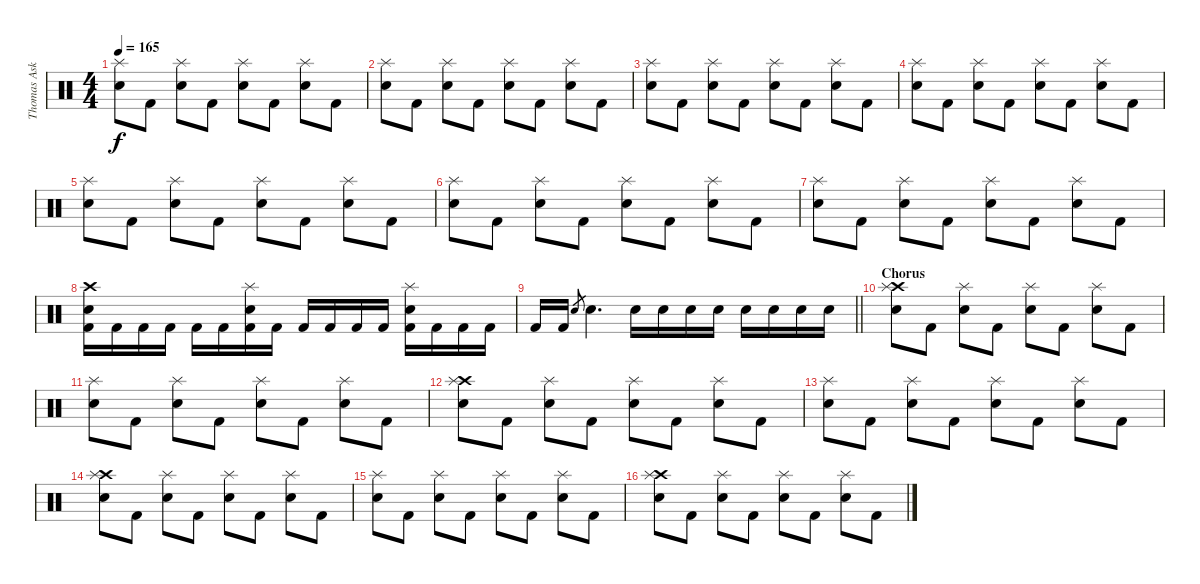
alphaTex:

\track ("Thomas Asklund" "Thomas Ask") {instrument percussion}
\staff {score}
\articulation defaults
\ts (4 4)
\tempo 165
\clef neutral
\ks c
("Splash (hit)" "Snare (hit) 2").8{dy f} "Kick (hit) 2".8 ("Splash (hit)" "Snare (hit) 2").8 "Kick (hit) 2".8 ("Splash (hit)" "Snare (hit) 2").8 "Kick (hit) 2".8 ("Splash (hit)" "Snare (hit) 2").8 "Kick (hit) 2".8 |
("Splash (hit)" "Snare (hit) 2").8 "Kick (hit) 2".8 ("Splash (hit)" "Snare (hit) 2").8 "Kick (hit) 2".8 ("Splash (hit)" "Snare (hit) 2").8 "Kick (hit) 2".8 ("Splash (hit)" "Snare (hit) 2").8 "Kick (hit) 2".8 |
("Splash (hit)" "Snare (hit) 2").8 "Kick (hit) 2".8 ("Splash (hit)" "Snare (hit) 2").8 "Kick (hit) 2".8 ("Splash (hit)" "Snare (hit) 2").8 "Kick (hit) 2".8 ("Splash (hit)" "Snare (hit) 2").8 "Kick (hit) 2".8 |
("Splash (hit)" "Snare (hit) 2").8 "Kick (hit) 2".8 ("Splash (hit)" "Snare (hit) 2").8 "Kick (hit) 2".8 ("Splash (hit)" "Snare (hit) 2").8 "Kick (hit) 2".8 ("Splash (hit)" "Snare (hit) 2").8 "Kick (hit) 2".8 |
("Splash (hit)" "Snare (hit) 2").8 "Kick (hit) 2".8 ("Splash (hit)" "Snare (hit) 2").8 "Kick (hit) 2".8 ("Splash (hit)" "Snare (hit) 2").8 "Kick (hit) 2".8 ("Splash (hit)" "Snare (hit) 2").8 "Kick (hit) 2".8 |
("Splash (hit)" "Snare (hit) 2").8 "Kick (hit) 2".8 ("Splash (hit)" "Snare (hit) 2").8 "Kick (hit) 2".8 ("Splash (hit)" "Snare (hit) 2").8 "Kick (hit) 2".8 ("Splash (hit)" "Snare (hit) 2").8 "Kick (hit) 2".8 |
("Splash (hit)" "Snare (hit) 2").8 "Kick (hit) 2".8 ("Splash (hit)" "Snare (hit) 2").8 "Kick (hit) 2".8 ("Splash (hit)" "Snare (hit) 2").8 "Kick (hit) 2".8 ("Splash (hit)" "Snare (hit) 2").8 "Kick (hit) 2".8 |
("Snare (hit) 2" "Crash high (hit)" "Kick (hit) 2").16 "Kick (hit) 2".16 "Kick (hit) 2".16 "Kick (hit) 2".16 "Kick (hit) 2".16 "Kick (hit) 2".16 ("Splash (hit)" "Snare (hit) 2" "Kick (hit) 2").16 "Kick (hit) 2".16 "Kick (hit) 2".16 "Kick (hit) 2".16 "Kick (hit) 2".16 "Kick (hit) 2".16 ("Splash (hit)" "Snare (hit) 2" "Kick (hit) 2").16 "Kick (hit) 2".16 "Kick (hit) 2".16 "Kick (hit) 2".16 |
\barLineRight lightlight "Kick (hit) 2".16 "Kick (hit) 2".16 "Electric Snare (hit)".8{gr} "Electric Snare (hit)".4{d} "Snare (hit) 2".16 "Snare (hit) 2".16 "Snare (hit) 2".16 "Snare (hit) 2".16 "Snare (hit) 2".16 "Snare (hit) 2".16 "Snare (hit) 2".16 "Snare (hit) 2".16
|
\section ("" "Chorus")
("Crash high (hit)" "Splash (hit)" "Snare (hit) 2").8 "Kick (hit) 2".8 ("Splash (hit)" "Snare (hit) 2").8 "Kick (hit) 2".8 ("Splash (hit)" "Snare (hit) 2").8 "Kick (hit) 2".8 ("Splash (hit)" "Snare (hit) 2").8 "Kick (hit) 2".8 |
("Splash (hit)" "Snare (hit) 2").8 "Kick (hit) 2".8 ("Splash (hit)" "Snare (hit) 2").8 "Kick (hit) 2".8 ("Splash (hit)" "Snare (hit) 2").8 "Kick (hit) 2".8 ("Splash (hit)" "Snare (hit) 2").8 "Kick (hit) 2".8 |
("Crash high (hit)" "Splash (hit)" "Snare (hit) 2").8 "Kick (hit) 2".8 ("Splash (hit)" "Snare (hit) 2").8 "Kick (hit) 2".8 ("Splash (hit)" "Snare (hit) 2").8 "Kick (hit) 2".8 ("Splash (hit)" "Snare (hit) 2").8 "Kick (hit) 2".8 |
("Splash (hit)" "Snare (hit) 2").8 "Kick (hit) 2".8 ("Splash (hit)" "Snare (hit) 2").8 "Kick (hit) 2".8 ("Splash (hit)" "Snare (hit) 2").8 "Kick (hit) 2".8 ("Splash (hit)" "Snare (hit) 2").8 "Kick (hit) 2".8 |
("Crash high (hit)" "Splash (hit)" "Snare (hit) 2").8 "Kick (hit) 2".8 ("Splash (hit)" "Snare (hit) 2").8 "Kick (hit) 2".8 ("Splash (hit)" "Snare (hit) 2").8 "Kick (hit) 2".8 ("Splash (hit)" "Snare (hit) 2").8 "Kick (hit) 2".8 |
("Splash (hit)" "Snare (hit) 2").8 "Kick (hit) 2".8 ("Splash (hit)" "Snare (hit) 2").8 "Kick (hit) 2".8 ("Splash (hit)" "Snare (hit) 2").8 "Kick (hit) 2".8 ("Splash (hit)" "Snare (hit) 2").8 "Kick (hit) 2".8 |
("Crash high (hit)" "Splash (hit)" "Snare (hit) 2").8 "Kick (hit) 2".8 ("Splash (hit)" "Snare (hit) 2").8 "Kick (hit) 2".8 ("Splash (hit)" "Snare (hit) 2").8 "Kick (hit) 2".8 ("Splash (hit)" "Snare (hit) 2").8 "Kick (hit) 2".8
